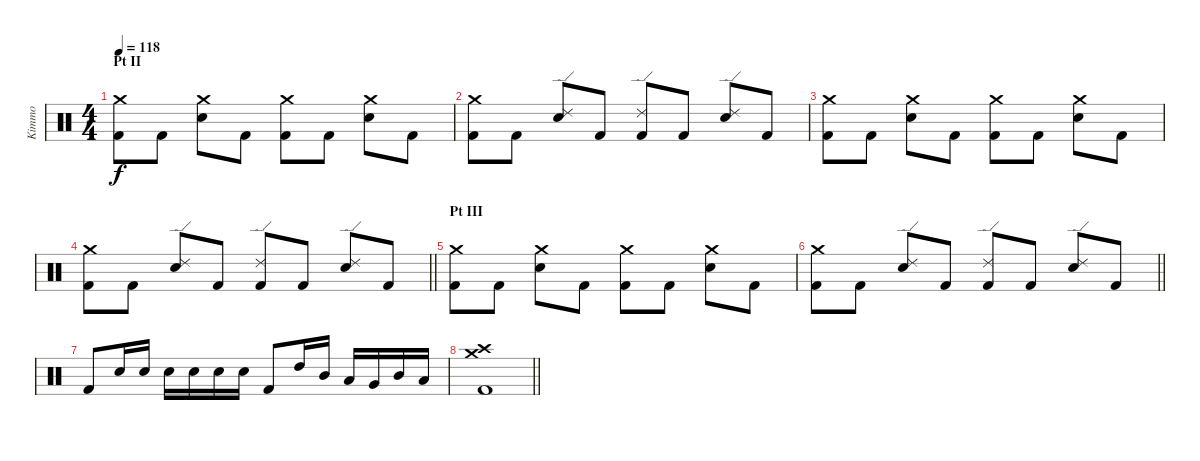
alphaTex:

\track ("Kimmo" "Kimmo") {instrument percussion}
\staff {score}
\articulation defaults
\ts (4 4)
\section ("" "Pt II")
\tempo 118
\clef neutral
\ks c
("Kick (hit) 2" "Crash medium (hit)").8{dy f} "Kick (hit) 2".8 ("Snare (hit) 2" "Crash medium (hit)").8 "Kick (hit) 2".8 ("Kick (hit) 2" "Crash medium (hit)").8 "Kick (hit) 2".8 ("Snare (hit) 2" "Crash medium (hit)").8 "Kick (hit) 2".8 |
("Kick (hit) 2" "Crash medium (hit)").8 "Kick (hit) 2".8 ("Snare (hit) 2" "Ride (edge) 2").8 "Kick (hit) 2".8 ("Kick (hit) 2" "Ride (edge) 2").8 "Kick (hit) 2".8 ("Snare (hit) 2" "Ride (edge) 2").8 "Kick (hit) 2".8 |
("Kick (hit) 2" "Crash medium (hit)").8 "Kick (hit) 2".8 ("Snare (hit) 2" "Crash medium (hit)").8 "Kick (hit) 2".8 ("Kick (hit) 2" "Crash medium (hit)").8 "Kick (hit) 2".8 ("Snare (hit) 2" "Crash medium (hit)").8 "Kick (hit) 2".8 |
\barLineRight lightlight
("Kick (hit) 2" "Crash medium (hit)").8 "Kick (hit) 2".8 ("Snare (hit) 2" "Ride (edge) 2").8 "Kick (hit) 2".8 ("Kick (hit) 2" "Ride (edge) 2").8 "Kick (hit) 2".8 ("Snare (hit) 2" "Ride (edge) 2").8 "Kick (hit) 2".8 |
\section ("" "Pt III")
("Kick (hit) 2" "Crash medium (hit)").8 "Kick (hit) 2".8 ("Snare (hit) 2" "Crash medium (hit)").8 "Kick (hit) 2".8 ("Kick (hit) 2" "Crash medium (hit)").8 "Kick (hit) 2".8 ("Snare (hit) 2" "Crash medium (hit)").8 "Kick (hit) 2".8 |
\barLineRight lightlight
("Kick (hit) 2" "Crash medium (hit)").8 "Kick (hit) 2".8 ("Snare (hit) 2" "Ride (edge) 2").8 "Kick (hit) 2".8 ("Kick (hit) 2" "Ride (edge) 2").8 "Kick (hit) 2".8 ("Snare (hit) 2" "Ride (edge) 2").8 "Kick (hit) 2".8 |
"Kick (hit) 2".8 "Snare (hit) 2".16 "Snare (hit) 2".16 "Snare (hit) 2".16 "Snare (hit) 2".16 "Snare (hit) 2".16 "Snare (hit) 2".16 "Kick (hit) 2".8 "High Tom (hit)".16 "Mid Tom (hit)".16 "Low Tom (hit)".16 "Very Low Tom (hit)".16 "Mid Tom (hit)".16 "Low Tom (hit)".16 |
\barLineRight lightlight
("Kick (hit) 2" "Crash high (hit)" "Crash medium (hit)").1
